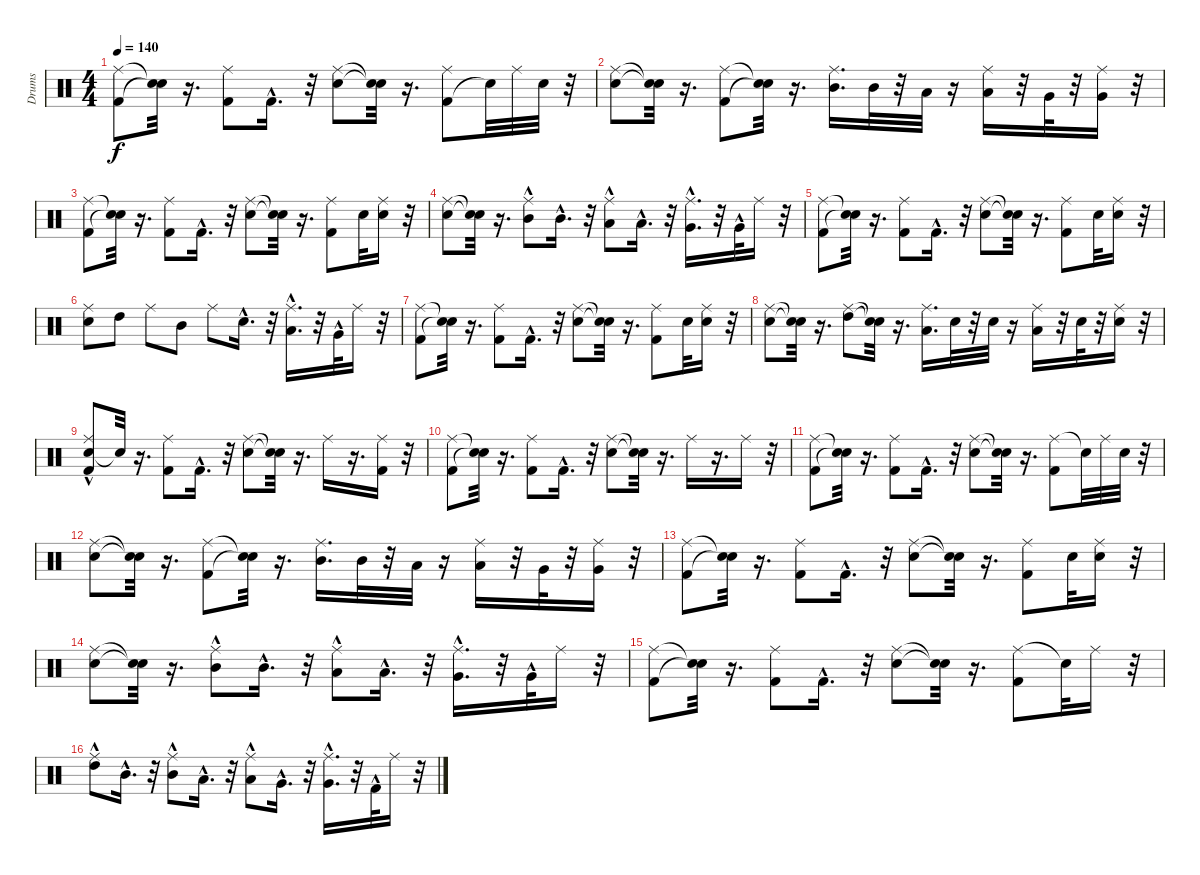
\track ("Drums" "Drums") {instrument percussion}
\staff {score}
\articulation defaults
\ts (4 4)
\tempo 140
\clef neutral
\ks c
("Kick (hit) 2" "Ride (middle)").8{dy f} ("Snare (hit)"{t} "Snare (hit)"{t}).32 r.16{d} ("Ride (middle)" "Kick (hit) 2").8 "Kick (hit) 2"{hac}.16{d} r.32 ("Snare (hit) 2" "Ride (middle)").8 ("Snare (hit)"{t} "Snare (hit)"{t}).32 r.16{d} ("Kick (hit) 2" "Ride (middle)").8 "Snare (hit)"{t}.32 "Ride (middle)".32 "Snare (hit) 2".32 r.32 |
("Snare (hit) 2" "Ride (middle)").8 ("Snare (hit)"{t} "Snare (hit)"{t}).32 r.16{d} ("Ride (middle)" "Kick (hit) 2").8 ("Snare (hit)"{t} "Snare (hit)"{t}).32 r.16{d} ("Mid Tom (hit)" "Ride (middle)").16{d} "Mid Tom (hit)".32 r.32 "Low Tom (hit)".32 r.16 ("Ride (middle)" "Low Tom (hit)").16 r.32 "Very Low Tom (hit)".32 r.32 ("Ride (middle)" "Very Low Tom (hit)").16 r.32 |
("Kick (hit) 2" "Ride (middle)").8 ("Snare (hit)"{t} "Snare (hit)"{t}).32 r.16{d} ("Kick (hit) 2" "Ride (middle)").8 "Kick (hit) 2"{hac}.16{d} r.32 ("Ride (middle)" "Snare (hit) 2").8 ("Snare (hit)"{t} "Snare (hit)"{t}).32 r.16{d} ("Ride (middle)" "Kick (hit) 2").8 "Snare (hit) 2".32 ("Ride (middle)" "Snare (hit) 2").16 r.32 |
("Ride (middle)" "Snare (hit) 2").8 ("Snare (hit)"{t} "Snare (hit)"{t}).32 r.16{d} ("Ride (middle)" "Mid Tom (hit)"{hac}).8 "Mid Tom (hit)"{hac}.16{d} r.32 ("Low Tom (hit)"{hac} "Ride (middle)").8 "Low Tom (hit)"{hac}.16{d} r.32 ("Ride (middle)" "Very Low Tom (hit)"{hac}).16{d} r.32 "Very Low Tom (hit)"{hac}.32 "Ride (middle)".16 r.32 |
("Ride (middle)" "Kick (hit) 2").8 ("Snare (hit)"{t} "Snare (hit)"{t}).32 r.16{d} ("Kick (hit) 2" "Ride (middle)").8 "Kick (hit) 2"{hac}.16{d} r.32 ("Snare (hit) 2" "Ride (middle)").8 ("Snare (hit)"{t} "Snare (hit)"{t}).32 r.16{d} ("Ride (middle)" "Kick (hit) 2").8 "Snare (hit) 2".32 ("Ride (middle)" "Snare (hit) 2").16 r.32 |
("Ride (middle)" "Snare (hit) 2").8 "High Tom (hit)".8 "Ride (middle)".8 "Mid Tom (hit)".8 "Ride (middle)".8 "Snare (hit) 2"{hac}.16{d} r.32 ("Ride (middle)" "Low Tom (hit)"{hac}).16{d} r.32 "Very Low Tom (hit)"{hac}.32 "Ride (middle)".16 r.32 |
("Ride (middle)" "Kick (hit) 2").8 ("Snare (hit)"{t} "Snare (hit)"{t}).32 r.16{d} ("Ride (middle)" "Kick (hit) 2").8 "Kick (hit) 2"{hac}.16{d} r.32 ("Snare (hit) 2" "Ride (middle)").8 ("Snare (hit)"{t} "Snare (hit)"{t}).32 r.16{d} ("Ride (middle)" "Kick (hit) 2").8 "Snare (hit) 2".32 ("Ride (middle)" "Snare (hit) 2").16 r.32 |
("Snare (hit) 2" "Ride (middle)").8 ("Snare (hit)"{t} "Snare (hit)"{t}).32 r.16{d} ("Ride (middle)" "High Tom (hit)").8 ("Snare (hit)"{t} "Snare (hit)"{t}).32 r.16{d} ("Low Tom (hit)" "Ride (middle)").16{d} "Snare (hit) 2".32 r.32 "Snare (hit) 2".32 r.16 ("Ride (middle)" "Low Tom (hit)").16 r.32 "Snare (hit) 2".32 r.32 ("Ride (middle)" "Snare (hit) 2").16 r.32 |
("Snare (hit) 2"{hac} "Ride (middle)" "Kick (hit) 2"{hac}).8 "Snare (hit)"{t}.32 r.16{d} ("Ride (middle)" "Kick (hit) 2").8 "Kick (hit) 2"{hac}.16{d} r.32 ("Snare (hit) 2" "Ride (middle)").8 ("Snare (hit)"{t} "Snare (hit)"{t}).32 r.16{d} "Ride (middle)".16 r.16{d} ("Ride (middle)" "Kick (hit) 2").16 r.32 |
("Kick (hit) 2" "Ride (middle)").8 ("Snare (hit)"{t} "Snare (hit)"{t}).32 r.16{d} ("Ride (middle)" "Kick (hit) 2").8 "Kick (hit) 2"{hac}.16{d} r.32 ("Snare (hit) 2" "Ride (middle)").8 ("Snare (hit)"{t} "Snare (hit)"{t}).32 r.16{d} "Ride (middle)".16 r.16{d} "Ride (middle)".16 r.32 |
("Kick (hit) 2" "Ride (middle)").8 ("Snare (hit)"{t} "Snare (hit)"{t}).32 r.16{d} ("Ride (middle)" "Kick (hit) 2").8 "Kick (hit) 2"{hac}.16{d} r.32 ("Snare (hit) 2" "Ride (middle)").8 ("Snare (hit)"{t} "Snare (hit)"{t}).32 r.16{d} ("Ride (middle)" "Kick (hit) 2").8 "Snare (hit)"{t}.32 "Ride (middle)".32 "Snare (hit) 2".32 r.32 |
("Snare (hit) 2" "Ride (middle)").8 ("Snare (hit)"{t} "Snare (hit)"{t}).32 r.16{d} ("Ride (middle)" "Kick (hit) 2").8 ("Snare (hit)"{t} "Snare (hit)"{t}).32 r.16{d} ("Ride (middle)" "Mid Tom (hit)").16{d} "Mid Tom (hit)".32 r.32 "Low Tom (hit)".32 r.16 ("Low Tom (hit)" "Ride (middle)").16 r.32 "Very Low Tom (hit)".32 r.32 ("Ride (middle)" "Very Low Tom (hit)").16 r.32 |
("Ride (middle)" "Kick (hit) 2").8 ("Snare (hit)"{t} "Snare (hit)"{t}).32 r.16{d} ("Kick (hit) 2" "Ride (middle)").8 "Kick (hit) 2"{hac}.16{d} r.32 ("Snare (hit) 2" "Ride (middle)").8 ("Snare (hit)"{t} "Snare (hit)"{t}).32 r.16{d} ("Kick (hit) 2" "Ride (middle)").8 "Snare (hit) 2".32 ("Snare (hit) 2" "Ride (middle)").16 r.32 |
("Snare (hit) 2" "Ride (middle)").8 ("Snare (hit)"{t} "Snare (hit)"{t}).32 r.16{d} ("Mid Tom (hit)"{hac} "Ride (middle)").8 "Mid Tom (hit)"{hac}.16{d} r.32 ("Ride (middle)" "Low Tom (hit)"{hac}).8 "Low Tom (hit)"{hac}.16{d} r.32 ("Very Low Tom (hit)"{hac} "Ride (middle)").16{d} r.32 "Very Low Tom (hit)"{hac}.32 "Ride (middle)".16 r.32 |
("Ride (middle)" "Kick (hit) 2").8 ("Snare (hit)"{t} "Snare (hit)"{t}).32 r.16{d} ("Kick (hit) 2" "Ride (middle)").8 "Kick (hit) 2"{hac}.16{d} r.32 ("Ride (middle)" "Snare (hit) 2").8 ("Snare (hit)"{t} "Snare (hit)"{t}).32 r.16{d} ("Ride (middle)" "Kick (hit) 2").8 "Snare (hit)"{t}.32 "Ride (middle)".16 r.32 |
("High Tom (hit)"{hac} "Ride (middle)").8 "Mid Tom (hit)"{hac}.16{d} r.32 ("Ride (middle)" "Mid Tom (hit)"{hac}).8 "Low Tom (hit)"{hac}.16{d} r.32 ("Low Tom (hit)"{hac} "Ride (middle)").8 "Very Low Tom (hit)"{hac}.16{d} r.32 ("Very Low Tom (hit)"{hac} "Ride (middle)").16{d} r.32 "Kick (hit) 2"{hac}.32 "Ride (middle)".16 r.32
